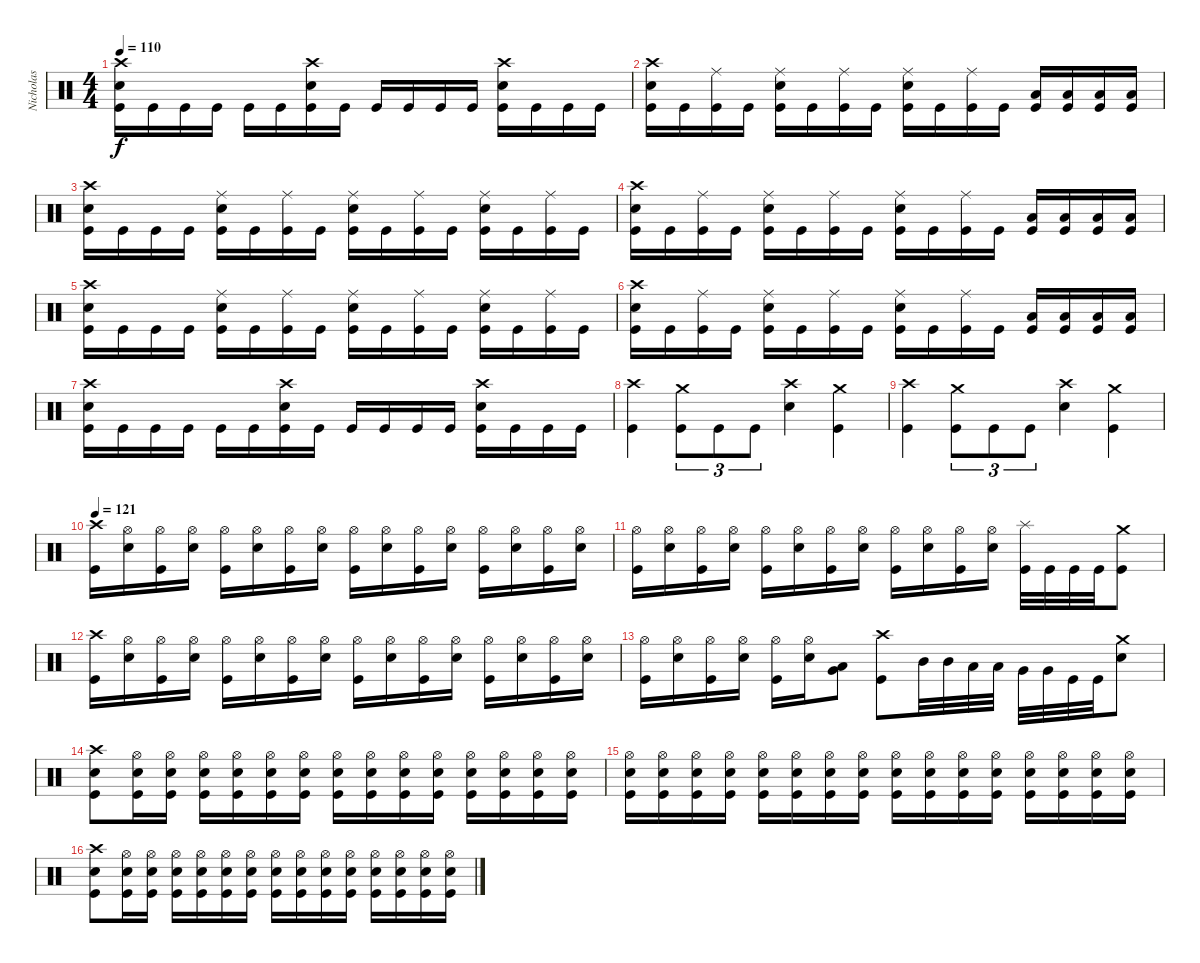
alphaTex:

\track ("Nicholas" "Nicholas") {instrument percussion}
\staff {score}
\articulation defaults
\ts (4 4)
\tempo 110
\clef neutral
\ks c
("Crash high (hit)" "Electric Snare (hit)" "Kick (hit)").16{dy f} "Kick (hit)".16 "Kick (hit)".16 "Kick (hit)".16 "Kick (hit)".16 "Kick (hit)".16 ("Crash high (hit)" "Electric Snare (hit)" "Kick (hit)").16 "Kick (hit)".16 "Kick (hit)".16 "Kick (hit)".16 "Kick (hit)".16 "Kick (hit)".16 ("Crash high (hit)" "Electric Snare (hit)" "Kick (hit)").16 "Kick (hit)".16 "Kick (hit)".16 "Kick (hit)".16 |
("Crash high (hit)" "Electric Snare (hit)" "Kick (hit)").16 "Kick (hit)".16 ("Ride (middle)" "Kick (hit)").16 "Kick (hit)".16 ("Ride (middle)" "Electric Snare (hit)" "Kick (hit)").16 "Kick (hit)".16 ("Ride (middle)" "Kick (hit)").16 "Kick (hit)".16 ("Ride (middle)" "Electric Snare (hit)" "Kick (hit)").16 "Kick (hit)".16 ("Ride (middle)" "Kick (hit)").16 "Kick (hit)".16 ("Low Floor Tom (hit)" "Kick (hit)").16 ("Low Floor Tom (hit)" "Kick (hit)").16 ("Low Floor Tom (hit)" "Kick (hit)").16 ("Low Floor Tom (hit)" "Kick (hit)").16 |
("Crash high (hit)" "Electric Snare (hit)" "Kick (hit)").16 "Kick (hit)".16 "Kick (hit)".16 "Kick (hit)".16 ("Ride (middle)" "Electric Snare (hit)" "Kick (hit)").16 "Kick (hit)".16 ("Ride (middle)" "Kick (hit)").16 "Kick (hit)".16 ("Ride (middle)" "Electric Snare (hit)" "Kick (hit)").16 "Kick (hit)".16 ("Ride (middle)" "Kick (hit)").16 "Kick (hit)".16 ("Ride (middle)" "Electric Snare (hit)" "Kick (hit)").16 "Kick (hit)".16 ("Ride (middle)" "Kick (hit)").16 "Kick (hit)".16 |
("Crash high (hit)" "Electric Snare (hit)" "Kick (hit)").16 "Kick (hit)".16 ("Ride (middle)" "Kick (hit)").16 "Kick (hit)".16 ("Ride (middle)" "Electric Snare (hit)" "Kick (hit)").16 "Kick (hit)".16 ("Ride (middle)" "Kick (hit)").16 "Kick (hit)".16 ("Ride (middle)" "Electric Snare (hit)" "Kick (hit)").16 "Kick (hit)".16 ("Ride (middle)" "Kick (hit)").16 "Kick (hit)".16 ("Low Floor Tom (hit)" "Kick (hit)").16 ("Low Floor Tom (hit)" "Kick (hit)").16 ("Low Floor Tom (hit)" "Kick (hit)").16 ("Low Floor Tom (hit)" "Kick (hit)").16 |
("Crash high (hit)" "Electric Snare (hit)" "Kick (hit)").16 "Kick (hit)".16 "Kick (hit)".16 "Kick (hit)".16 ("Ride (middle)" "Electric Snare (hit)" "Kick (hit)").16 "Kick (hit)".16 ("Ride (middle)" "Kick (hit)").16 "Kick (hit)".16 ("Ride (middle)" "Electric Snare (hit)" "Kick (hit)").16 "Kick (hit)".16 ("Ride (middle)" "Kick (hit)").16 "Kick (hit)".16 ("Ride (middle)" "Electric Snare (hit)" "Kick (hit)").16 "Kick (hit)".16 ("Ride (middle)" "Kick (hit)").16 "Kick (hit)".16 |
("Crash high (hit)" "Electric Snare (hit)" "Kick (hit)").16 "Kick (hit)".16 ("Ride (middle)" "Kick (hit)").16 "Kick (hit)".16 ("Ride (middle)" "Electric Snare (hit)" "Kick (hit)").16 "Kick (hit)".16 ("Ride (middle)" "Kick (hit)").16 "Kick (hit)".16 ("Ride (middle)" "Electric Snare (hit)" "Kick (hit)").16 "Kick (hit)".16 ("Ride (middle)" "Kick (hit)").16 "Kick (hit)".16 ("Low Floor Tom (hit)" "Kick (hit)").16 ("Low Floor Tom (hit)" "Kick (hit)").16 ("Low Floor Tom (hit)" "Kick (hit)").16 ("Low Floor Tom (hit)" "Kick (hit)").16 |
("Crash high (hit)" "Electric Snare (hit)" "Kick (hit)").16 "Kick (hit)".16 "Kick (hit)".16 "Kick (hit)".16 "Kick (hit)".16 "Kick (hit)".16 ("Crash high (hit)" "Electric Snare (hit)" "Kick (hit)").16 "Kick (hit)".16 "Kick (hit)".16 "Kick (hit)".16 "Kick (hit)".16 "Kick (hit)".16 ("Crash high (hit)" "Electric Snare (hit)" "Kick (hit)").16 "Kick (hit)".16 "Kick (hit)".16 "Kick (hit)".16 |
("Crash high (hit)" "Kick (hit)").4 ("Crash medium (hit)" "Kick (hit)").8{tu (3 2)} "Kick (hit)".8{tu (3 2)} "Kick (hit)".8{tu (3 2)} ("Crash high (hit)" "Electric Snare (hit)").4 ("Crash medium (hit)" "Kick (hit)").4 |
("Crash high (hit)" "Kick (hit)").4 ("Crash medium (hit)" "Kick (hit)").8{tu (3 2)} "Kick (hit)".8{tu (3 2)} "Kick (hit)".8{tu (3 2)} ("Crash high (hit)" "Electric Snare (hit)").4 ("Crash medium (hit)" "Kick (hit)").4 |
\tempo 121
("Crash high (hit)" "Kick (hit)").16 ("Hi-Hat (open)" "Electric Snare (hit)").16 ("Hi-Hat (open)" "Kick (hit)").16 ("Hi-Hat (open)" "Electric Snare (hit)").16 ("Hi-Hat (open)" "Kick (hit)").16 ("Hi-Hat (open)" "Electric Snare (hit)").16 ("Hi-Hat (open)" "Kick (hit)").16 ("Hi-Hat (open)" "Electric Snare (hit)").16 ("Hi-Hat (open)" "Kick (hit)").16 ("Hi-Hat (open)" "Electric Snare (hit)").16 ("Hi-Hat (open)" "Kick (hit)").16 ("Hi-Hat (open)" "Electric Snare (hit)").16 ("Hi-Hat (open)" "Kick (hit)").16 ("Hi-Hat (open)" "Electric Snare (hit)").16 ("Hi-Hat (open)" "Kick (hit)").16 ("Hi-Hat (open)" "Electric Snare (hit)").16 |
("Hi-Hat (open)" "Kick (hit)").16 ("Hi-Hat (open)" "Electric Snare (hit)").16 ("Hi-Hat (open)" "Kick (hit)").16 ("Hi-Hat (open)" "Electric Snare (hit)").16 ("Hi-Hat (open)" "Kick (hit)").16 ("Hi-Hat (open)" "Electric Snare (hit)").16 ("Hi-Hat (open)" "Kick (hit)").16 ("Hi-Hat (open)" "Electric Snare (hit)").16 ("Hi-Hat (open)" "Kick (hit)").16 ("Hi-Hat (open)" "Electric Snare (hit)").16 ("Hi-Hat (open)" "Kick (hit)").16 ("Hi-Hat (open)" "Electric Snare (hit)").16 ("Splash (hit)" "Kick (hit)").32 "Kick (hit)".32 "Kick (hit)".32 "Kick (hit)".32 ("Crash medium (hit)" "Kick (hit)").8 |
("Crash high (hit)" "Kick (hit)").16 ("Hi-Hat (open)" "Electric Snare (hit)").16 ("Hi-Hat (open)" "Kick (hit)").16 ("Hi-Hat (open)" "Electric Snare (hit)").16 ("Hi-Hat (open)" "Kick (hit)").16 ("Hi-Hat (open)" "Electric Snare (hit)").16 ("Hi-Hat (open)" "Kick (hit)").16 ("Hi-Hat (open)" "Electric Snare (hit)").16 ("Hi-Hat (open)" "Kick (hit)").16 ("Hi-Hat (open)" "Electric Snare (hit)").16 ("Hi-Hat (open)" "Kick (hit)").16 ("Hi-Hat (open)" "Electric Snare (hit)").16 ("Hi-Hat (open)" "Kick (hit)").16 ("Hi-Hat (open)" "Electric Snare (hit)").16 ("Hi-Hat (open)" "Kick (hit)").16 ("Hi-Hat (open)" "Electric Snare (hit)").16 |
("Hi-Hat (open)" "Kick (hit)").16 ("Hi-Hat (open)" "Electric Snare (hit)").16 ("Hi-Hat (open)" "Kick (hit)").16 ("Hi-Hat (open)" "Electric Snare (hit)").16 ("Hi-Hat (open)" "Kick (hit)").16 ("Hi-Hat (open)" "Electric Snare (hit)").16 ("Low Tom (hit)" "Very Low Tom (hit)").8 ("Crash high (hit)" "Kick (hit)").8 "Mid Tom (hit)".32 "Mid Tom (hit)".32 "Low Tom (hit)".32 "Low Tom (hit)".32 "Very Low Tom (hit)".32 "Very Low Tom (hit)".32 "Kick (hit)".32 "Kick (hit)".32 ("Crash medium (hit)" "Electric Snare (hit)").8 |
("Crash high (hit)" "Electric Snare (hit)" "Kick (hit)").8 ("Hi-Hat (open)" "Electric Snare (hit)" "Kick (hit)").16 ("Hi-Hat (open)" "Electric Snare (hit)" "Kick (hit)").16 ("Hi-Hat (open)" "Electric Snare (hit)" "Kick (hit)").16 ("Hi-Hat (open)" "Electric Snare (hit)" "Kick (hit)").16 ("Hi-Hat (open)" "Electric Snare (hit)" "Kick (hit)").16 ("Hi-Hat (open)" "Electric Snare (hit)" "Kick (hit)").16 ("Hi-Hat (open)" "Electric Snare (hit)" "Kick (hit)").16 ("Hi-Hat (open)" "Electric Snare (hit)" "Kick (hit)").16 ("Hi-Hat (open)" "Electric Snare (hit)" "Kick (hit)").16 ("Hi-Hat (open)" "Electric Snare (hit)" "Kick (hit)").16 ("Hi-Hat (open)" "Electric Snare (hit)" "Kick (hit)").16 ("Hi-Hat (open)" "Electric Snare (hit)" "Kick (hit)").16 ("Hi-Hat (open)" "Electric Snare (hit)" "Kick (hit)").16 ("Hi-Hat (open)" "Electric Snare (hit)" "Kick (hit)").16 |
("Hi-Hat (open)" "Electric Snare (hit)" "Kick (hit)").16 ("Hi-Hat (open)" "Electric Snare (hit)" "Kick (hit)").16 ("Hi-Hat (open)" "Electric Snare (hit)" "Kick (hit)").16 ("Hi-Hat (open)" "Electric Snare (hit)" "Kick (hit)").16 ("Hi-Hat (open)" "Electric Snare (hit)" "Kick (hit)").16 ("Hi-Hat (open)" "Electric Snare (hit)" "Kick (hit)").16 ("Hi-Hat (open)" "Electric Snare (hit)" "Kick (hit)").16 ("Hi-Hat (open)" "Electric Snare (hit)" "Kick (hit)").16 ("Hi-Hat (open)" "Electric Snare (hit)" "Kick (hit)").16 ("Hi-Hat (open)" "Electric Snare (hit)" "Kick (hit)").16 ("Hi-Hat (open)" "Electric Snare (hit)" "Kick (hit)").16 ("Hi-Hat (open)" "Electric Snare (hit)" "Kick (hit)").16 ("Hi-Hat (open)" "Electric Snare (hit)" "Kick (hit)").16 ("Hi-Hat (open)" "Electric Snare (hit)" "Kick (hit)").16 ("Hi-Hat (open)" "Electric Snare (hit)" "Kick (hit)").16 ("Hi-Hat (open)" "Electric Snare (hit)" "Kick (hit)").16 |
("Crash high (hit)" "Electric Snare (hit)" "Kick (hit)").8 ("Hi-Hat (open)" "Electric Snare (hit)" "Kick (hit)").16 ("Hi-Hat (open)" "Electric Snare (hit)" "Kick (hit)").16 ("Hi-Hat (open)" "Electric Snare (hit)" "Kick (hit)").16 ("Hi-Hat (open)" "Electric Snare (hit)" "Kick (hit)").16 ("Hi-Hat (open)" "Electric Snare (hit)" "Kick (hit)").16 ("Hi-Hat (open)" "Electric Snare (hit)" "Kick (hit)").16 ("Hi-Hat (open)" "Electric Snare (hit)" "Kick (hit)").16 ("Hi-Hat (open)" "Electric Snare (hit)" "Kick (hit)").16 ("Hi-Hat (open)" "Electric Snare (hit)" "Kick (hit)").16 ("Hi-Hat (open)" "Electric Snare (hit)" "Kick (hit)").16 ("Hi-Hat (open)" "Electric Snare (hit)" "Kick (hit)").16 ("Hi-Hat (open)" "Electric Snare (hit)" "Kick (hit)").16 ("Hi-Hat (open)" "Electric Snare (hit)" "Kick (hit)").16 ("Hi-Hat (open)" "Electric Snare (hit)" "Kick (hit)").16
